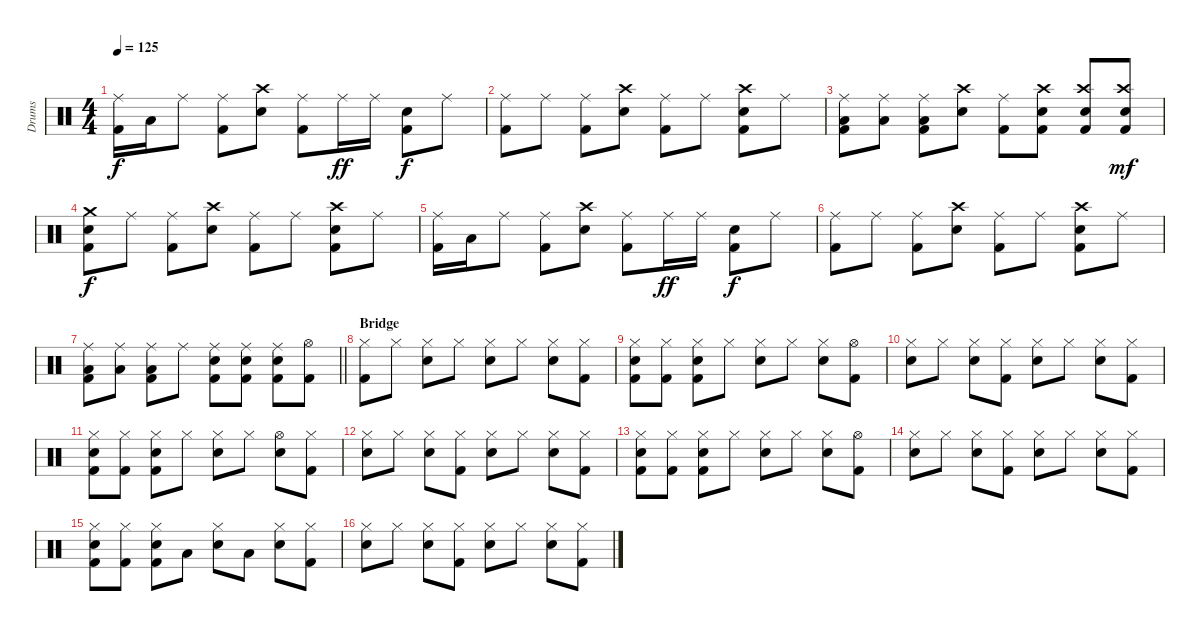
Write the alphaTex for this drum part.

\track ("Drums" "Drums") {instrument percussion}
\staff {score}
\articulation defaults
\ts (4 4)
\tempo 125
\clef neutral
\ks c
("Ride (middle)" "Kick (hit) 2").16{dy f} "Low Tom (hit)".16 "Ride (middle)".8 ("Ride (middle)" "Kick (hit) 2").8 ("Crash high (hit)" "Electric Snare (hit)").8 ("Ride (middle)" "Kick (hit) 2").8 "Ride (middle)".16{dy ff} "Ride (middle)".16 ("Electric Snare (hit)" "Kick (hit) 2").8{dy f} "Ride (middle)".8 |
("Ride (middle)" "Kick (hit) 2").8 "Ride (middle)".8 ("Ride (middle)" "Kick (hit) 2").8 ("Crash high (hit)" "Electric Snare (hit)").8 ("Ride (middle)" "Kick (hit) 2").8 "Ride (middle)".8 ("Crash high (hit)" "Electric Snare (hit)" "Kick (hit) 2").8 "Ride (middle)".8 |
("Ride (middle)" "Low Tom (hit)" "Kick (hit) 2").8 ("Ride (middle)" "Low Tom (hit)").8 ("Ride (middle)" "Low Tom (hit)" "Kick (hit) 2").8 ("Crash high (hit)" "Electric Snare (hit)").8 ("Ride (middle)" "Kick (hit) 2").8 ("Crash high (hit)" "Electric Snare (hit)" "Kick (hit) 2").8 ("Crash high (hit)" "Electric Snare (hit)" "Kick (hit) 2").8 ("Crash high (hit)" "Electric Snare (hit)" "Kick (hit) 2").8{dy mf} |
("Crash medium (hit)" "Electric Snare (hit)" "Kick (hit) 2").8{dy f} "Ride (middle)".8 ("Ride (middle)" "Kick (hit) 2").8 ("Crash high (hit)" "Electric Snare (hit)").8 ("Ride (middle)" "Kick (hit) 2").8 "Ride (middle)".8 ("Crash high (hit)" "Electric Snare (hit)" "Kick (hit) 2").8 "Ride (middle)".8 |
("Ride (middle)" "Kick (hit) 2").16 "Low Tom (hit)".16 "Ride (middle)".8 ("Ride (middle)" "Kick (hit) 2").8 ("Crash high (hit)" "Electric Snare (hit)").8 ("Ride (middle)" "Kick (hit) 2").8 "Ride (middle)".16{dy ff} "Ride (middle)".16 ("Electric Snare (hit)" "Kick (hit) 2").8{dy f} "Ride (middle)".8 |
("Ride (middle)" "Kick (hit) 2").8 "Ride (middle)".8 ("Ride (middle)" "Kick (hit) 2").8 ("Crash high (hit)" "Electric Snare (hit)").8 ("Ride (middle)" "Kick (hit) 2").8 "Ride (middle)".8 ("Crash high (hit)" "Electric Snare (hit)" "Kick (hit) 2").8 "Ride (middle)".8 |
\barLineRight lightlight
("Ride (middle)" "Low Tom (hit)" "Kick (hit) 2").8 ("Ride (middle)" "Low Tom (hit)").8 ("Ride (middle)" "Low Tom (hit)" "Kick (hit) 2").8 "Ride (middle)".8 ("Ride (middle)" "Electric Snare (hit)" "Kick (hit) 2").8 ("Ride (middle)" "Electric Snare (hit)" "Kick (hit) 2").8 ("Ride (middle)" "Electric Snare (hit)" "Kick (hit) 2").8 ("Hi-Hat (open)" "Kick (hit) 2").8 |
\section ("" "Bridge")
("Hi-Hat (closed)" "Kick (hit) 2").8 "Hi-Hat (closed)".8 ("Hi-Hat (closed)" "Electric Snare (hit)").8 "Hi-Hat (closed)".8 ("Hi-Hat (closed)" "Electric Snare (hit)").8 "Hi-Hat (closed)".8 ("Hi-Hat (closed)" "Electric Snare (hit)").8 ("Hi-Hat (closed)" "Kick (hit) 2").8 |
("Hi-Hat (closed)" "Electric Snare (hit)" "Kick (hit) 2").8 ("Hi-Hat (closed)" "Kick (hit) 2").8 ("Hi-Hat (closed)" "Electric Snare (hit)" "Kick (hit) 2").8 "Hi-Hat (closed)".8 ("Hi-Hat (closed)" "Electric Snare (hit)").8 "Hi-Hat (closed)".8 ("Hi-Hat (closed)" "Electric Snare (hit)").8 ("Hi-Hat (open)" "Kick (hit) 2").8 |
("Hi-Hat (closed)" "Electric Snare (hit)").8 "Hi-Hat (closed)".8 ("Hi-Hat (closed)" "Electric Snare (hit)").8 ("Hi-Hat (closed)" "Kick (hit) 2").8 ("Hi-Hat (closed)" "Electric Snare (hit)").8 "Hi-Hat (closed)".8 ("Hi-Hat (closed)" "Electric Snare (hit)").8 ("Hi-Hat (closed)" "Kick (hit) 2").8 |
("Hi-Hat (closed)" "Electric Snare (hit)" "Kick (hit) 2").8 ("Hi-Hat (closed)" "Kick (hit) 2").8 ("Hi-Hat (closed)" "Electric Snare (hit)" "Kick (hit) 2").8 "Hi-Hat (closed)".8 ("Hi-Hat (closed)" "Electric Snare (hit)").8 "Hi-Hat (closed)".8 ("Hi-Hat (open)" "Electric Snare (hit)").8 ("Hi-Hat (closed)" "Kick (hit) 2").8 |
("Hi-Hat (closed)" "Electric Snare (hit)").8 "Hi-Hat (closed)".8 ("Hi-Hat (closed)" "Electric Snare (hit)").8 ("Hi-Hat (closed)" "Kick (hit) 2").8 ("Hi-Hat (closed)" "Electric Snare (hit)").8 "Hi-Hat (closed)".8 ("Hi-Hat (closed)" "Electric Snare (hit)").8 ("Hi-Hat (closed)" "Kick (hit) 2").8 |
("Hi-Hat (closed)" "Electric Snare (hit)" "Kick (hit) 2").8 ("Hi-Hat (closed)" "Kick (hit) 2").8 ("Hi-Hat (closed)" "Electric Snare (hit)" "Kick (hit) 2").8 "Hi-Hat (closed)".8 ("Hi-Hat (closed)" "Electric Snare (hit)").8 "Hi-Hat (closed)".8 ("Hi-Hat (closed)" "Electric Snare (hit)").8 ("Hi-Hat (open)" "Kick (hit) 2").8 |
("Hi-Hat (closed)" "Electric Snare (hit)").8 "Hi-Hat (closed)".8 ("Hi-Hat (closed)" "Electric Snare (hit)").8 ("Hi-Hat (closed)" "Kick (hit) 2").8 ("Hi-Hat (closed)" "Electric Snare (hit)").8 "Hi-Hat (closed)".8 ("Hi-Hat (closed)" "Electric Snare (hit)").8 ("Hi-Hat (closed)" "Kick (hit) 2").8 |
("Hi-Hat (closed)" "Electric Snare (hit)" "Kick (hit) 2").8 ("Hi-Hat (closed)" "Kick (hit) 2").8 ("Hi-Hat (closed)" "Electric Snare (hit)" "Kick (hit) 2").8 "Low Tom (hit)".8 ("Hi-Hat (closed)" "Electric Snare (hit)").8 "Low Tom (hit)".8 ("Hi-Hat (closed)" "Electric Snare (hit)").8 ("Hi-Hat (closed)" "Kick (hit) 2").8 |
("Hi-Hat (closed)" "Electric Snare (hit)").8 "Hi-Hat (closed)".8 ("Hi-Hat (closed)" "Electric Snare (hit)").8 ("Hi-Hat (closed)" "Kick (hit) 2").8 ("Hi-Hat (closed)" "Electric Snare (hit)").8 "Hi-Hat (closed)".8 ("Hi-Hat (closed)" "Electric Snare (hit)").8 ("Hi-Hat (closed)" "Kick (hit) 2").8
